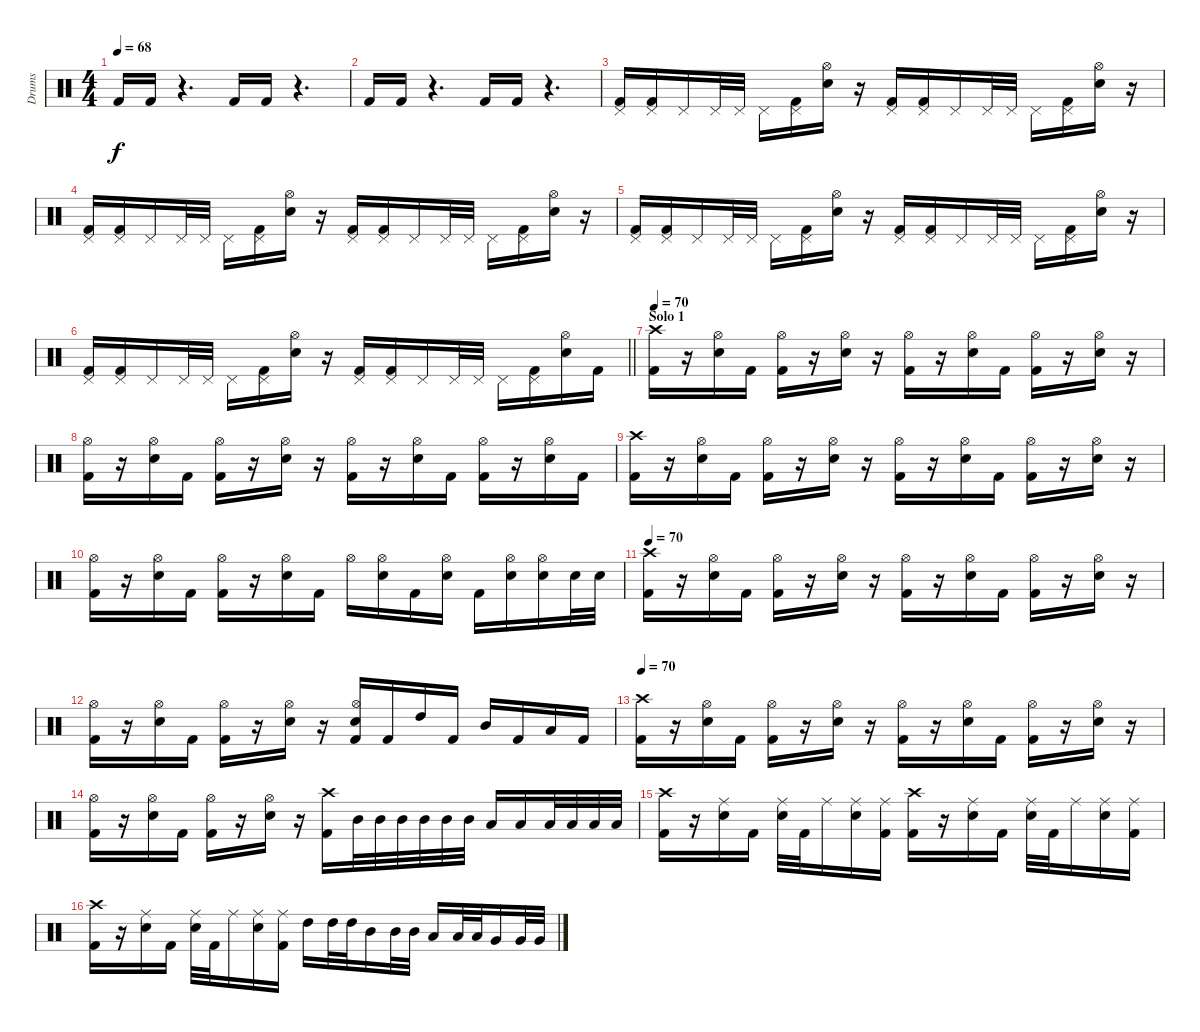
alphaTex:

\track ("Drums" "Drums") {instrument percussion}
\staff {score}
\articulation defaults
\ts (4 4)
\tempo 68
\clef neutral
\ks c "Kick (hit) 2".16{dy f} "Kick (hit) 2".16
r.4{d} "Kick (hit) 2".16 "Kick (hit) 2".16 r.4{d} |
"Kick (hit) 2".16 "Kick (hit) 2".16 r.4{d} "Kick (hit) 2".16 "Kick (hit) 2".16 r.4{d} |
("Pedal Hi-Hat (hit)" "Kick (hit) 2").16 ("Pedal Hi-Hat (hit)" "Kick (hit) 2").16 "Pedal Hi-Hat (hit)".16 "Pedal Hi-Hat (hit)".32 "Pedal Hi-Hat (hit)".32 "Pedal Hi-Hat (hit)".16 ("Pedal Hi-Hat (hit)" "Kick (hit) 2").16 ("Hi-Hat (open)" "Snare (hit) 2").16 r.16 ("Pedal Hi-Hat (hit)" "Kick (hit) 2").16 ("Pedal Hi-Hat (hit)" "Kick (hit) 2").16 "Pedal Hi-Hat (hit)".16 "Pedal Hi-Hat (hit)".32 "Pedal Hi-Hat (hit)".32 "Pedal Hi-Hat (hit)".16 ("Pedal Hi-Hat (hit)" "Kick (hit) 2").16 ("Hi-Hat (open)" "Snare (hit) 2").16 r.16 |
("Pedal Hi-Hat (hit)" "Kick (hit) 2").16 ("Pedal Hi-Hat (hit)" "Kick (hit) 2").16 "Pedal Hi-Hat (hit)".16 "Pedal Hi-Hat (hit)".32 "Pedal Hi-Hat (hit)".32 "Pedal Hi-Hat (hit)".16 ("Pedal Hi-Hat (hit)" "Kick (hit) 2").16 ("Hi-Hat (open)" "Snare (hit) 2").16 r.16 ("Pedal Hi-Hat (hit)" "Kick (hit) 2").16 ("Pedal Hi-Hat (hit)" "Kick (hit) 2").16 "Pedal Hi-Hat (hit)".16 "Pedal Hi-Hat (hit)".32 "Pedal Hi-Hat (hit)".32 "Pedal Hi-Hat (hit)".16 ("Pedal Hi-Hat (hit)" "Kick (hit) 2").16 ("Hi-Hat (open)" "Snare (hit) 2").16 r.16 |
("Pedal Hi-Hat (hit)" "Kick (hit) 2").16 ("Pedal Hi-Hat (hit)" "Kick (hit) 2").16 "Pedal Hi-Hat (hit)".16 "Pedal Hi-Hat (hit)".32 "Pedal Hi-Hat (hit)".32 "Pedal Hi-Hat (hit)".16 ("Pedal Hi-Hat (hit)" "Kick (hit) 2").16 ("Hi-Hat (open)" "Snare (hit) 2").16 r.16 ("Pedal Hi-Hat (hit)" "Kick (hit) 2").16 ("Pedal Hi-Hat (hit)" "Kick (hit) 2").16 "Pedal Hi-Hat (hit)".16 "Pedal Hi-Hat (hit)".32 "Pedal Hi-Hat (hit)".32 "Pedal Hi-Hat (hit)".16 ("Pedal Hi-Hat (hit)" "Kick (hit) 2").16 ("Hi-Hat (open)" "Snare (hit) 2").16 r.16 |
\barLineRight lightlight
("Pedal Hi-Hat (hit)" "Kick (hit) 2").16 ("Pedal Hi-Hat (hit)" "Kick (hit) 2").16 "Pedal Hi-Hat (hit)".16 "Pedal Hi-Hat (hit)".32 "Pedal Hi-Hat (hit)".32 "Pedal Hi-Hat (hit)".16 ("Pedal Hi-Hat (hit)" "Kick (hit) 2").16 ("Hi-Hat (open)" "Snare (hit) 2").16 r.16 ("Pedal Hi-Hat (hit)" "Kick (hit) 2").16 ("Pedal Hi-Hat (hit)" "Kick (hit) 2").16 "Pedal Hi-Hat (hit)".16 "Pedal Hi-Hat (hit)".32 "Pedal Hi-Hat (hit)".32 "Pedal Hi-Hat (hit)".16 ("Pedal Hi-Hat (hit)" "Kick (hit) 2").16 ("Hi-Hat (open)" "Snare (hit) 2").16 "Kick (hit) 2".16 |
\section ("" "Solo 1")
\tempo 70
("Crash high (hit)" "Kick (hit) 2").16 r.16 ("Hi-Hat (open)" "Snare (hit) 2").16 "Kick (hit) 2".16 ("Hi-Hat (open)" "Kick (hit) 2").16 r.16 ("Hi-Hat (open)" "Snare (hit) 2").16 r.16 ("Hi-Hat (open)" "Kick (hit) 2").16 r.16 ("Hi-Hat (open)" "Snare (hit) 2").16 "Kick (hit) 2".16 ("Hi-Hat (open)" "Kick (hit) 2").16 r.16 ("Hi-Hat (open)" "Snare (hit) 2").16 r.16 |
("Hi-Hat (open)" "Kick (hit) 2").16 r.16 ("Hi-Hat (open)" "Snare (hit) 2").16 "Kick (hit) 2".16 ("Hi-Hat (open)" "Kick (hit) 2").16 r.16 ("Hi-Hat (open)" "Snare (hit) 2").16 r.16 ("Hi-Hat (open)" "Kick (hit) 2").16 r.16 ("Hi-Hat (open)" "Snare (hit) 2").16 "Kick (hit) 2".16 ("Hi-Hat (open)" "Kick (hit) 2").16 r.16 ("Hi-Hat (open)" "Snare (hit) 2").16 "Kick (hit) 2".16 |
("Crash high (hit)" "Kick (hit) 2").16 r.16 ("Hi-Hat (open)" "Snare (hit) 2").16 "Kick (hit) 2".16 ("Hi-Hat (open)" "Kick (hit) 2").16 r.16 ("Hi-Hat (open)" "Snare (hit) 2").16 r.16 ("Hi-Hat (open)" "Kick (hit) 2").16 r.16 ("Hi-Hat (open)" "Snare (hit) 2").16 "Kick (hit) 2".16 ("Hi-Hat (open)" "Kick (hit) 2").16 r.16 ("Hi-Hat (open)" "Snare (hit) 2").16 r.16 |
("Hi-Hat (open)" "Kick (hit) 2").16 r.16 ("Hi-Hat (open)" "Snare (hit) 2").16 "Kick (hit) 2".16 ("Hi-Hat (open)" "Kick (hit) 2").16 r.16 ("Hi-Hat (open)" "Snare (hit) 2").16 "Kick (hit) 2".16 "Hi-Hat (open)".16 ("Hi-Hat (open)" "Snare (hit) 2").16 "Kick (hit) 2".16 ("Hi-Hat (open)" "Snare (hit) 2").16 "Kick (hit) 2".16 ("Hi-Hat (open)" "Snare (hit) 2").16 ("Hi-Hat (open)" "Snare (hit) 2").16 "Snare (hit) 2".32 "Snare (hit) 2".32 |
\tempo 70
("Crash high (hit)" "Kick (hit) 2").16 r.16 ("Hi-Hat (open)" "Snare (hit) 2").16 "Kick (hit) 2".16 ("Hi-Hat (open)" "Kick (hit) 2").16 r.16 ("Hi-Hat (open)" "Snare (hit) 2").16 r.16 ("Hi-Hat (open)" "Kick (hit) 2").16 r.16 ("Hi-Hat (open)" "Snare (hit) 2").16 "Kick (hit) 2".16 ("Hi-Hat (open)" "Kick (hit) 2").16 r.16 ("Hi-Hat (open)" "Snare (hit) 2").16 r.16 |
("Hi-Hat (open)" "Kick (hit) 2").16 r.16 ("Hi-Hat (open)" "Snare (hit) 2").16 "Kick (hit) 2".16 ("Hi-Hat (open)" "Kick (hit) 2").16 r.16 ("Hi-Hat (open)" "Snare (hit) 2").16 r.16 ("Hi-Hat (open)" "Snare (hit) 2" "Kick (hit) 2").16 "Kick (hit) 2".16 "High Tom (hit)".16 "Kick (hit) 2".16 "Mid Tom (hit)".16 "Kick (hit) 2".16 "Low Tom (hit)".16 "Kick (hit) 2".16 |
\tempo 70
("Crash high (hit)" "Kick (hit) 2").16 r.16 ("Hi-Hat (open)" "Snare (hit) 2").16 "Kick (hit) 2".16 ("Hi-Hat (open)" "Kick (hit) 2").16 r.16 ("Hi-Hat (open)" "Snare (hit) 2").16 r.16 ("Hi-Hat (open)" "Kick (hit) 2").16 r.16 ("Hi-Hat (open)" "Snare (hit) 2").16 "Kick (hit) 2".16 ("Hi-Hat (open)" "Kick (hit) 2").16 r.16 ("Hi-Hat (open)" "Snare (hit) 2").16 r.16 |
("Hi-Hat (open)" "Kick (hit) 2").16 r.16 ("Hi-Hat (open)" "Snare (hit) 2").16 "Kick (hit) 2".16 ("Hi-Hat (open)" "Kick (hit) 2").16 r.16 ("Hi-Hat (open)" "Snare (hit) 2").16 r.16 ("Crash high (hit)" "Kick (hit) 2").16 "Mid Tom (hit)".32 "Mid Tom (hit)".32 "Mid Tom (hit)".32 "Mid Tom (hit)".32 "Mid Tom (hit)".32 "Mid Tom (hit)".32 "Low Tom (hit)".16 "Low Tom (hit)".16 "Low Tom (hit)".32 "Low Tom (hit)".32 "Low Tom (hit)".32 "Low Tom (hit)".32 |
("Crash high (hit)" "Kick (hit) 2").16 r.16 ("Ride (middle)" "Snare (hit) 2").16 "Kick (hit) 2".16 ("Ride (middle)" "Snare (hit) 2").32 "Kick (hit) 2".32 "Ride (middle)".16 ("Ride (middle)" "Snare (hit) 2").16 ("Ride (middle)" "Kick (hit) 2").16 ("Crash high (hit)" "Kick (hit) 2").16 r.16 ("Ride (middle)" "Snare (hit) 2").16 "Kick (hit) 2".16 ("Ride (middle)" "Snare (hit) 2").32 "Kick (hit) 2".32 "Ride (middle)".16 ("Ride (middle)" "Snare (hit) 2").16 ("Ride (middle)" "Kick (hit) 2").16 |
("Crash high (hit)" "Kick (hit) 2").16 r.16 ("Ride (middle)" "Snare (hit) 2").16 "Kick (hit) 2".16 ("Ride (middle)" "Snare (hit) 2").32 "Kick (hit) 2".32 "Ride (middle)".16 ("Ride (middle)" "Snare (hit) 2").16 ("Ride (middle)" "Kick (hit) 2").16 "High Tom (hit)".16 "High Tom (hit)".32 "High Tom (hit)".32 "Mid Tom (hit)".16 "Mid Tom (hit)".32 "Mid Tom (hit)".32 "Low Tom (hit)".16 "Low Tom (hit)".32 "Low Tom (hit)".32 "Very Low Tom (hit)".16 "Very Low Tom (hit)".32 "Very Low Tom (hit)".32
